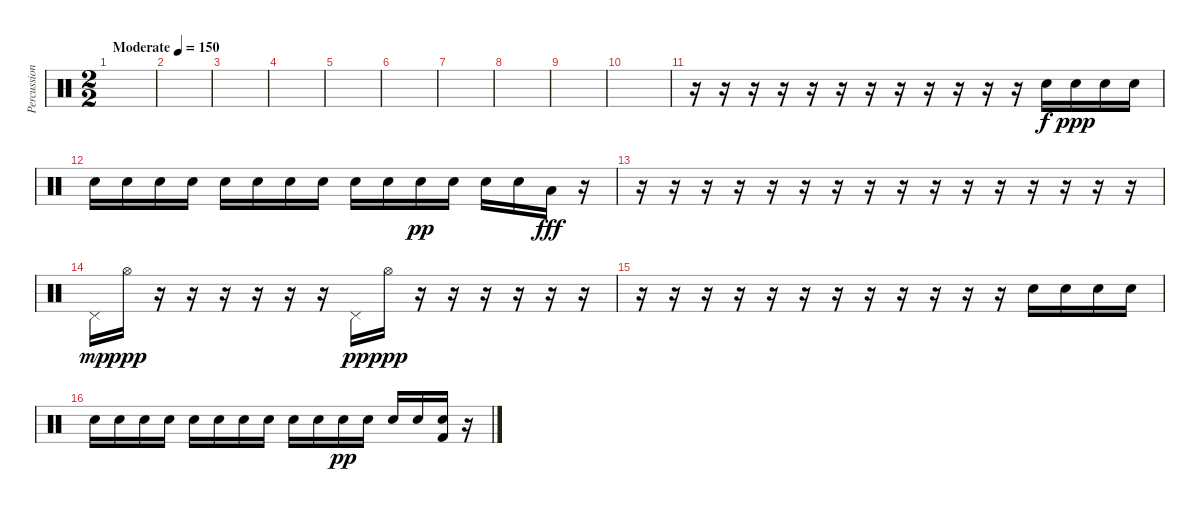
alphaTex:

\track ("Percussion" "Percussion") {instrument percussion}
\staff {score}
\articulation defaults
\ts (2 2)
\tempo (150 "Moderate")
\clef neutral
\ks c
|
|
|
|
|
|
|
|
|
|
r.16 r.16 r.16 r.16 r.16 r.16 r.16 r.16 r.16 r.16 r.16 r.16 "Snare (hit) 2".16 "Snare (hit) 2".16{dy ppp} "Snare (hit) 2".16 "Snare (hit) 2".16 |
"Snare (hit) 2".16 "Snare (hit) 2".16 "Snare (hit) 2".16 "Snare (hit) 2".16 "Snare (hit) 2".16 "Snare (hit) 2".16 "Snare (hit) 2".16 "Snare (hit) 2".16 "Snare (hit) 2".16 "Snare (hit) 2".16 "Snare (hit) 2".16{dy pp} "Snare (hit) 2".16 "Snare (hit) 2".16 "Snare (hit) 2".16 "Low Floor Tom (hit)".16{dy fff} r.16 |
r.16 r.16 r.16 r.16 r.16 r.16 r.16 r.16 r.16 r.16 r.16 r.16 r.16 r.16 r.16 r.16 |
"Pedal Hi-Hat (hit)".16{dy mp} "Hi-Hat (open)".16{dy ppp} r.16 r.16 r.16 r.16 r.16 r.16 "Pedal Hi-Hat (hit)".16{dy pp} "Hi-Hat (open)".16{dy ppp} r.16 r.16 r.16 r.16 r.16 r.16 |
r.16 r.16 r.16 r.16 r.16 r.16 r.16 r.16 r.16 r.16 r.16 r.16 "Snare (hit) 2".16 "Snare (hit) 2".16 "Snare (hit) 2".16 "Snare (hit) 2".16 |
"Snare (hit) 2".16 "Snare (hit) 2".16 "Snare (hit) 2".16 "Snare (hit) 2".16 "Snare (hit) 2".16 "Snare (hit) 2".16 "Snare (hit) 2".16 "Snare (hit) 2".16 "Snare (hit) 2".16 "Snare (hit) 2".16 "Snare (hit) 2".16{dy pp} "Snare (hit) 2".16 "Snare (hit) 2".16 "Snare (hit) 2".16 ("Snare (hit) 2" "Kick (hit) 2").16 r.16
